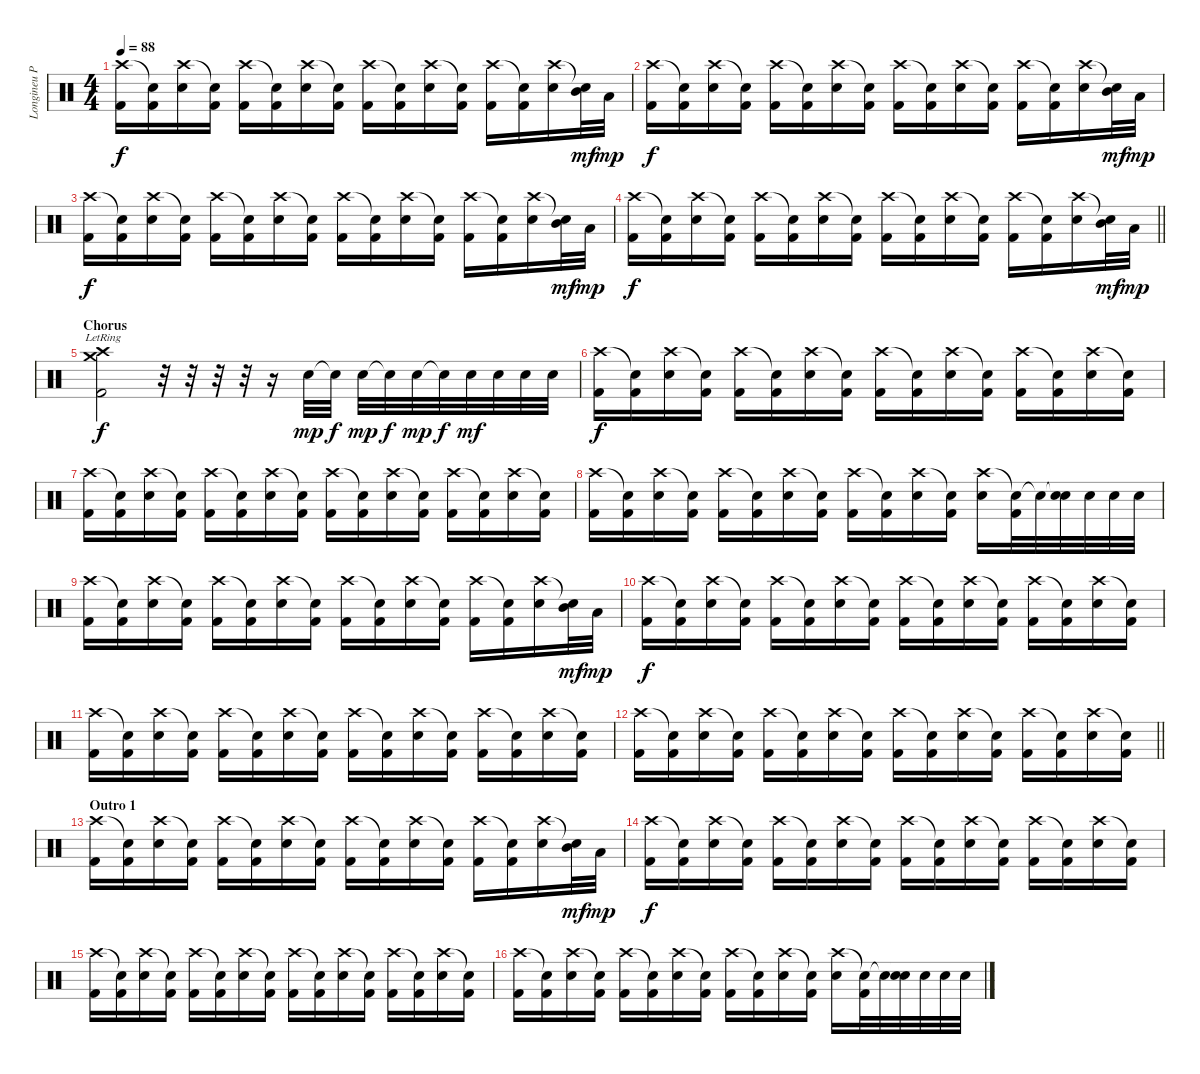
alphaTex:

\track ("Longineu Parsons ||| (Drums)" "Longineu P") {instrument percussion}
\staff {score}
\articulation defaults
\ts (4 4)
\tempo 88
\clef neutral
\ks c
("Crash high (hit)" "Kick (hit) 2").16{dy f} ("Snare (hit)"{t} "Kick (hit) 2").16 ("Crash high (hit)" "Electric Snare (hit)").16 ("Snare (hit)"{t} "Kick (hit) 2").16 ("Crash high (hit)" "Kick (hit) 2").16 ("Snare (hit)"{t} "Kick (hit) 2").16 ("Crash high (hit)" "Electric Snare (hit)").16 ("Snare (hit)"{t} "Kick (hit) 2").16 ("Crash high (hit)" "Kick (hit) 2").16 ("Snare (hit)"{t} "Kick (hit) 2").16 ("Crash high (hit)" "Electric Snare (hit)").16 ("Snare (hit)"{t} "Kick (hit) 2").16 ("Crash high (hit)" "Kick (hit) 2").16 ("Snare (hit)"{t} "Kick (hit) 2").16 ("Crash high (hit)" "Electric Snare (hit)").16 ("Snare (hit)"{t} "Mid Tom (hit)").32{dy mf} "Low Tom (hit)".32{dy mp} |
("Crash high (hit)" "Kick (hit) 2").16{dy f} ("Snare (hit)"{t} "Kick (hit) 2").16 ("Crash high (hit)" "Electric Snare (hit)").16 ("Snare (hit)"{t} "Kick (hit) 2").16 ("Crash high (hit)" "Kick (hit) 2").16 ("Snare (hit)"{t} "Kick (hit) 2").16 ("Crash high (hit)" "Electric Snare (hit)").16 ("Snare (hit)"{t} "Kick (hit) 2").16 ("Crash high (hit)" "Kick (hit) 2").16 ("Snare (hit)"{t} "Kick (hit) 2").16 ("Crash high (hit)" "Electric Snare (hit)").16 ("Snare (hit)"{t} "Kick (hit) 2").16 ("Crash high (hit)" "Kick (hit) 2").16 ("Snare (hit)"{t} "Kick (hit) 2").16 ("Crash high (hit)" "Electric Snare (hit)").16 ("Snare (hit)"{t} "Mid Tom (hit)").32{dy mf} "Low Tom (hit)".32{dy mp} |
("Crash high (hit)" "Kick (hit) 2").16{dy f} ("Snare (hit)"{t} "Kick (hit) 2").16 ("Crash high (hit)" "Electric Snare (hit)").16 ("Snare (hit)"{t} "Kick (hit) 2").16 ("Crash high (hit)" "Kick (hit) 2").16 ("Snare (hit)"{t} "Kick (hit) 2").16 ("Crash high (hit)" "Electric Snare (hit)").16 ("Snare (hit)"{t} "Kick (hit) 2").16 ("Crash high (hit)" "Kick (hit) 2").16 ("Snare (hit)"{t} "Kick (hit) 2").16 ("Crash high (hit)" "Electric Snare (hit)").16 ("Snare (hit)"{t} "Kick (hit) 2").16 ("Crash high (hit)" "Kick (hit) 2").16 ("Snare (hit)"{t} "Kick (hit) 2").16 ("Crash high (hit)" "Electric Snare (hit)").16 ("Snare (hit)"{t} "Mid Tom (hit)").32{dy mf} "Low Tom (hit)".32{dy mp} |
\barLineRight lightlight
("Crash high (hit)" "Kick (hit) 2").16{dy f} ("Snare (hit)"{t} "Kick (hit) 2").16 ("Crash high (hit)" "Electric Snare (hit)").16 ("Snare (hit)"{t} "Kick (hit) 2").16 ("Crash high (hit)" "Kick (hit) 2").16 ("Snare (hit)"{t} "Kick (hit) 2").16 ("Crash high (hit)" "Electric Snare (hit)").16 ("Snare (hit)"{t} "Kick (hit) 2").16 ("Crash high (hit)" "Kick (hit) 2").16 ("Snare (hit)"{t} "Kick (hit) 2").16 ("Crash high (hit)" "Electric Snare (hit)").16 ("Snare (hit)"{t} "Kick (hit) 2").16 ("Crash high (hit)" "Kick (hit) 2").16 ("Snare (hit)"{t} "Kick (hit) 2").16 ("Crash high (hit)" "Electric Snare (hit)").16 ("Snare (hit)"{t} "Mid Tom (hit)").32{dy mf} "Low Tom (hit)".32{dy mp} |
\section ("" "Chorus")
("Crash medium (hit)"{lr} "Crash high (hit)"{lr} "Kick (hit) 2"{lr}).2{dy f} r.32 r.32 r.32 r.32 r.16 "Electric Snare (hit)".32{dy mp} "Electric Snare (hit)"{t}.32{dy f} "Electric Snare (hit)".32{dy mp} "Electric Snare (hit)"{t}.32{dy f} "Electric Snare (hit)".32{dy mp} "Electric Snare (hit)"{t}.32{dy f} "Electric Snare (hit)".32{dy mf} "Electric Snare (hit)".32 "Electric Snare (hit)".32 "Electric Snare (hit)".32 |
("Crash high (hit)" "Kick (hit) 2").16{dy f} ("Snare (hit)"{t} "Kick (hit) 2").16 ("Crash high (hit)" "Electric Snare (hit)").16 ("Snare (hit)"{t} "Kick (hit) 2").16 ("Crash high (hit)" "Kick (hit) 2").16 ("Snare (hit)"{t} "Kick (hit) 2").16 ("Crash high (hit)" "Electric Snare (hit)").16 ("Snare (hit)"{t} "Kick (hit) 2").16 ("Crash high (hit)" "Kick (hit) 2").16 ("Snare (hit)"{t} "Kick (hit) 2").16 ("Crash high (hit)" "Electric Snare (hit)").16 ("Snare (hit)"{t} "Kick (hit) 2").16 ("Crash high (hit)" "Kick (hit) 2").16 ("Snare (hit)"{t} "Kick (hit) 2").16 ("Crash high (hit)" "Electric Snare (hit)").16 ("Snare (hit)"{t} "Kick (hit) 2").16 |
("Crash high (hit)" "Kick (hit) 2").16 ("Snare (hit)"{t} "Kick (hit) 2").16 ("Crash high (hit)" "Electric Snare (hit)").16 ("Snare (hit)"{t} "Kick (hit) 2").16 ("Crash high (hit)" "Kick (hit) 2").16 ("Snare (hit)"{t} "Kick (hit) 2").16 ("Crash high (hit)" "Electric Snare (hit)").16 ("Snare (hit)"{t} "Kick (hit) 2").16 ("Crash high (hit)" "Kick (hit) 2").16 ("Snare (hit)"{t} "Kick (hit) 2").16 ("Crash high (hit)" "Electric Snare (hit)").16 ("Snare (hit)"{t} "Kick (hit) 2").16 ("Crash high (hit)" "Kick (hit) 2").16 ("Snare (hit)"{t} "Kick (hit) 2").16 ("Crash high (hit)" "Electric Snare (hit)").16 ("Snare (hit)"{t} "Kick (hit) 2").16 |
("Crash high (hit)" "Kick (hit) 2").16 ("Snare (hit)"{t} "Kick (hit) 2").16 ("Crash high (hit)" "Electric Snare (hit)").16 ("Snare (hit)"{t} "Kick (hit) 2").16 ("Crash high (hit)" "Kick (hit) 2").16 ("Snare (hit)"{t} "Kick (hit) 2").16 ("Crash high (hit)" "Electric Snare (hit)").16 ("Snare (hit)"{t} "Kick (hit) 2").16 ("Crash high (hit)" "Kick (hit) 2").16 ("Snare (hit)"{t} "Kick (hit) 2").16 ("Crash high (hit)" "Electric Snare (hit)").16 ("Snare (hit)"{t} "Kick (hit) 2").16 ("Crash high (hit)" "Snare (hit) 2").16 ("Snare (hit)"{t} "Kick (hit) 2").32 "Electric Snare (hit)"{t}.32 ("Snare (hit)"{t} "Electric Snare (hit)").32 "Electric Snare (hit)".32 "Electric Snare (hit)".32 "Electric Snare (hit)".32 |
("Crash high (hit)" "Kick (hit) 2").16 ("Snare (hit)"{t} "Kick (hit) 2").16 ("Crash high (hit)" "Electric Snare (hit)").16 ("Snare (hit)"{t} "Kick (hit) 2").16 ("Crash high (hit)" "Kick (hit) 2").16 ("Snare (hit)"{t} "Kick (hit) 2").16 ("Crash high (hit)" "Electric Snare (hit)").16 ("Snare (hit)"{t} "Kick (hit) 2").16 ("Crash high (hit)" "Kick (hit) 2").16 ("Snare (hit)"{t} "Kick (hit) 2").16 ("Crash high (hit)" "Electric Snare (hit)").16 ("Snare (hit)"{t} "Kick (hit) 2").16 ("Crash high (hit)" "Kick (hit) 2").16 ("Snare (hit)"{t} "Kick (hit) 2").16 ("Crash high (hit)" "Electric Snare (hit)").16 ("Snare (hit)"{t} "Mid Tom (hit)").32{dy mf} "Low Tom (hit)".32{dy mp} |
("Crash high (hit)" "Kick (hit) 2").16{dy f} ("Snare (hit)"{t} "Kick (hit) 2").16 ("Crash high (hit)" "Electric Snare (hit)").16 ("Snare (hit)"{t} "Kick (hit) 2").16 ("Crash high (hit)" "Kick (hit) 2").16 ("Snare (hit)"{t} "Kick (hit) 2").16 ("Crash high (hit)" "Electric Snare (hit)").16 ("Snare (hit)"{t} "Kick (hit) 2").16 ("Crash high (hit)" "Kick (hit) 2").16 ("Snare (hit)"{t} "Kick (hit) 2").16 ("Crash high (hit)" "Electric Snare (hit)").16 ("Snare (hit)"{t} "Kick (hit) 2").16 ("Crash high (hit)" "Kick (hit) 2").16 ("Snare (hit)"{t} "Kick (hit) 2").16 ("Crash high (hit)" "Electric Snare (hit)").16 ("Snare (hit)"{t} "Kick (hit) 2").16 |
("Crash high (hit)" "Kick (hit) 2").16 ("Snare (hit)"{t} "Kick (hit) 2").16 ("Crash high (hit)" "Electric Snare (hit)").16 ("Snare (hit)"{t} "Kick (hit) 2").16 ("Crash high (hit)" "Kick (hit) 2").16 ("Snare (hit)"{t} "Kick (hit) 2").16 ("Crash high (hit)" "Electric Snare (hit)").16 ("Snare (hit)"{t} "Kick (hit) 2").16 ("Crash high (hit)" "Kick (hit) 2").16 ("Snare (hit)"{t} "Kick (hit) 2").16 ("Crash high (hit)" "Electric Snare (hit)").16 ("Snare (hit)"{t} "Kick (hit) 2").16 ("Crash high (hit)" "Kick (hit) 2").16 ("Snare (hit)"{t} "Kick (hit) 2").16 ("Crash high (hit)" "Electric Snare (hit)").16 ("Snare (hit)"{t} "Kick (hit) 2").16 |
\barLineRight lightlight
("Crash high (hit)" "Kick (hit) 2").16 ("Snare (hit)"{t} "Kick (hit) 2").16 ("Crash high (hit)" "Electric Snare (hit)").16 ("Snare (hit)"{t} "Kick (hit) 2").16 ("Crash high (hit)" "Kick (hit) 2").16 ("Snare (hit)"{t} "Kick (hit) 2").16 ("Crash high (hit)" "Electric Snare (hit)").16 ("Snare (hit)"{t} "Kick (hit) 2").16 ("Crash high (hit)" "Kick (hit) 2").16 ("Snare (hit)"{t} "Kick (hit) 2").16 ("Crash high (hit)" "Electric Snare (hit)").16 ("Snare (hit)"{t} "Kick (hit) 2").16 ("Crash high (hit)" "Kick (hit) 2").16 ("Snare (hit)"{t} "Kick (hit) 2").16 ("Crash high (hit)" "Electric Snare (hit)").16 ("Snare (hit)"{t} "Kick (hit) 2").16 |
\section ("" "Outro 1")
("Crash high (hit)" "Kick (hit) 2").16 ("Snare (hit)"{t} "Kick (hit) 2").16 ("Crash high (hit)" "Electric Snare (hit)").16 ("Snare (hit)"{t} "Kick (hit) 2").16 ("Crash high (hit)" "Kick (hit) 2").16 ("Snare (hit)"{t} "Kick (hit) 2").16 ("Crash high (hit)" "Electric Snare (hit)").16 ("Snare (hit)"{t} "Kick (hit) 2").16 ("Crash high (hit)" "Kick (hit) 2").16 ("Snare (hit)"{t} "Kick (hit) 2").16 ("Crash high (hit)" "Electric Snare (hit)").16 ("Snare (hit)"{t} "Kick (hit) 2").16 ("Crash high (hit)" "Kick (hit) 2").16 ("Snare (hit)"{t} "Kick (hit) 2").16 ("Crash high (hit)" "Electric Snare (hit)").16 ("Snare (hit)"{t} "Mid Tom (hit)").32{dy mf} "Low Tom (hit)".32{dy mp} |
("Crash high (hit)" "Kick (hit) 2").16{dy f} ("Snare (hit)"{t} "Kick (hit) 2").16 ("Crash high (hit)" "Electric Snare (hit)").16 ("Snare (hit)"{t} "Kick (hit) 2").16 ("Crash high (hit)" "Kick (hit) 2").16 ("Snare (hit)"{t} "Kick (hit) 2").16 ("Crash high (hit)" "Electric Snare (hit)").16 ("Snare (hit)"{t} "Kick (hit) 2").16 ("Crash high (hit)" "Kick (hit) 2").16 ("Snare (hit)"{t} "Kick (hit) 2").16 ("Crash high (hit)" "Electric Snare (hit)").16 ("Snare (hit)"{t} "Kick (hit) 2").16 ("Crash high (hit)" "Kick (hit) 2").16 ("Snare (hit)"{t} "Kick (hit) 2").16 ("Crash high (hit)" "Electric Snare (hit)").16 ("Snare (hit)"{t} "Kick (hit) 2").16 |
("Crash high (hit)" "Kick (hit) 2").16 ("Snare (hit)"{t} "Kick (hit) 2").16 ("Crash high (hit)" "Electric Snare (hit)").16 ("Snare (hit)"{t} "Kick (hit) 2").16 ("Crash high (hit)" "Kick (hit) 2").16 ("Snare (hit)"{t} "Kick (hit) 2").16 ("Crash high (hit)" "Electric Snare (hit)").16 ("Snare (hit)"{t} "Kick (hit) 2").16 ("Crash high (hit)" "Kick (hit) 2").16 ("Snare (hit)"{t} "Kick (hit) 2").16 ("Crash high (hit)" "Electric Snare (hit)").16 ("Snare (hit)"{t} "Kick (hit) 2").16 ("Crash high (hit)" "Kick (hit) 2").16 ("Snare (hit)"{t} "Kick (hit) 2").16 ("Crash high (hit)" "Electric Snare (hit)").16 ("Snare (hit)"{t} "Kick (hit) 2").16 |
("Crash high (hit)" "Kick (hit) 2").16 ("Snare (hit)"{t} "Kick (hit) 2").16 ("Crash high (hit)" "Electric Snare (hit)").16 ("Snare (hit)"{t} "Kick (hit) 2").16 ("Crash high (hit)" "Kick (hit) 2").16 ("Snare (hit)"{t} "Kick (hit) 2").16 ("Crash high (hit)" "Electric Snare (hit)").16 ("Snare (hit)"{t} "Kick (hit) 2").16 ("Crash high (hit)" "Kick (hit) 2").16 ("Snare (hit)"{t} "Kick (hit) 2").16 ("Crash high (hit)" "Electric Snare (hit)").16 ("Snare (hit)"{t} "Kick (hit) 2").16 ("Crash high (hit)" "Snare (hit) 2").16 ("Snare (hit)"{t} "Kick (hit) 2").32 "Electric Snare (hit)"{t}.32 ("Snare (hit)"{t} "Electric Snare (hit)").32 "Electric Snare (hit)".32 "Electric Snare (hit)".32 "Electric Snare (hit)".32
